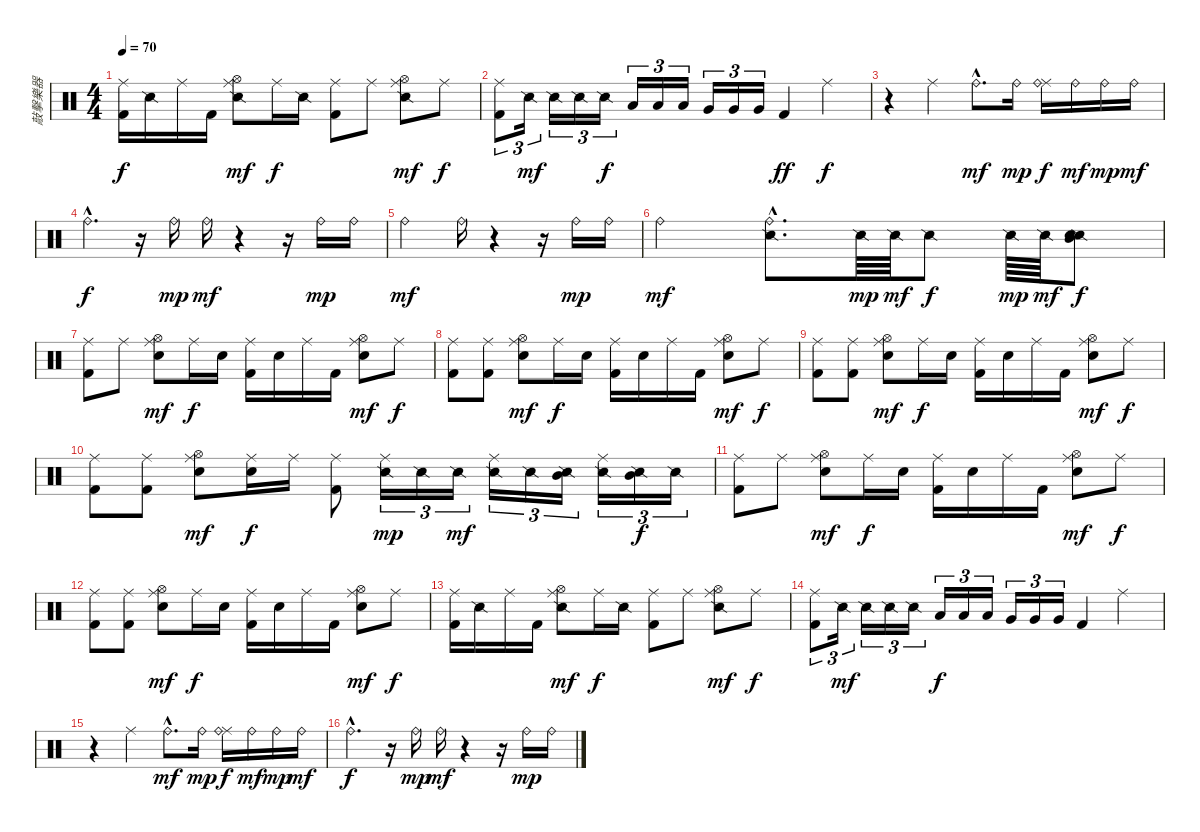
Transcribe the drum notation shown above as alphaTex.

\track ("敲擊樂器" "敲擊樂器") {instrument percussion}
\staff {score}
\articulation defaults
\ts (4 4)
\tempo 70
\clef neutral
\ks c
("Ride (middle)" "Kick (hit) 2").16{dy f} "Snare (side stick) 2".16 "Ride (middle)".16 "Kick (hit) 2".16 ("Ride (middle)" "Hi-Hat (open)" "Snare (side stick) 2").8{dy mf} "Ride (middle)".16{dy f} "Snare (side stick) 2".16 ("Ride (middle)" "Kick (hit) 2").8 "Ride (middle)".8 ("Ride (middle)" "Hi-Hat (open)" "Snare (side stick) 2").8{dy mf} "Ride (middle)".8{dy f} |
("Ride (middle)" "Kick (hit) 2").8{tu (3 2)} "Snare (side stick) 2".16{tu (3 2) dy mf} "Snare (side stick) 2".16{tu (3 2)} "Snare (side stick) 2".16{tu (3 2)} "Snare (side stick) 2".16{tu (3 2) dy f} "Low Tom (hit)".16{tu (3 2)} "Low Tom (hit)".16{tu (3 2)} "Low Tom (hit)".16{tu (3 2)} "Very Low Tom (hit)".16{tu (3 2)} "Very Low Tom (hit)".16{tu (3 2)} "Very Low Tom (hit)".16{tu (3 2)} "Kick (hit) 2".4{dy ff} "Ride (middle)".4{dy f} |
r.4 "Ride (middle)".4 "Ride (bell)"{hac}.8{d dy mf} "Ride (bell)".16{dy mp} ("Ride (middle)" "Ride (bell)").16{dy f} "Ride (bell)".16{dy mf} "Ride (bell)".16{dy mp} "Ride (bell)".16{dy mf} |
"Ride (bell)"{hac}.4{d dy f} r.16 "Ride (bell)".16{dy mp} "Ride (bell)".16{dy mf} r.4 r.16 "Ride (bell)".16{dy mp} "Ride (bell)".16 |
"Ride (bell)".2{dy mf} "Ride (bell)".16 r.4 r.16 "Ride (bell)".16{dy mp} "Ride (bell)".16 |
"Ride (bell)".2{dy mf} ("Ride (bell)"{hac} "Snare (side stick) 2"{hac}).8{d} "Snare (side stick) 2".64{dy mp} "Snare (side stick) 2".64{dy mf} "Snare (side stick) 2".8{dy f} "Snare (side stick) 2".64{dy mp} "Snare (side stick) 2".64{dy mf} ("Snare (side stick) 2" "Mid Tom (hit)" "Snare (hit) 2").8{dy f} |
("Ride (middle)" "Kick (hit) 2").8 "Ride (middle)".8 ("Ride (middle)" "Hi-Hat (open)" "Snare (hit) 2").8{dy mf} "Ride (middle)".16{dy f} "Snare (hit) 2".16 ("Ride (middle)" "Kick (hit) 2").16 "Snare (hit) 2".16 "Ride (middle)".16 "Kick (hit) 2".16 ("Ride (middle)" "Hi-Hat (open)" "Snare (hit) 2").8{dy mf} "Ride (middle)".8{dy f} |
("Ride (middle)" "Kick (hit) 2").8 ("Ride (middle)" "Kick (hit) 2").8 ("Ride (middle)" "Hi-Hat (open)" "Snare (hit) 2").8{dy mf} "Ride (middle)".16{dy f} "Snare (hit) 2".16 ("Ride (middle)" "Kick (hit) 2").16 "Snare (hit) 2".16 "Ride (middle)".16 "Kick (hit) 2".16 ("Ride (middle)" "Hi-Hat (open)" "Snare (hit) 2").8{dy mf} "Ride (middle)".8{dy f} |
("Ride (middle)" "Kick (hit) 2").8 ("Ride (middle)" "Kick (hit) 2").8 ("Ride (middle)" "Hi-Hat (open)" "Snare (hit) 2").8{dy mf} "Ride (middle)".16{dy f} "Snare (hit) 2".16 ("Ride (middle)" "Kick (hit) 2").16 "Snare (hit) 2".16 "Ride (middle)".16 "Kick (hit) 2".16 ("Ride (middle)" "Hi-Hat (open)" "Snare (hit) 2").8{dy mf} "Ride (middle)".8{dy f} |
("Ride (middle)" "Kick (hit) 2").8 ("Ride (middle)" "Kick (hit) 2").8 ("Ride (middle)" "Hi-Hat (open)" "Snare (hit) 2").8{dy mf} ("Ride (middle)" "Snare (hit) 2").16{dy f} "Ride (middle)".16 ("Ride (middle)" "Kick (hit) 2").8 ("Ride (middle)" "Snare (side stick) 2").16{tu (3 2) dy mp} "Snare (side stick) 2".16{tu (3 2)} "Snare (side stick) 2".16{tu (3 2) dy mf} ("Ride (middle)" "Snare (side stick) 2").16{tu (3 2)} "Snare (side stick) 2".16{tu (3 2)} ("Snare (side stick) 2" "Mid Tom (hit)").16{tu (3 2)} ("Ride (middle)" "Snare (side stick) 2").16{tu (3 2)} ("Snare (side stick) 2" "Mid Tom (hit)").16{tu (3 2) dy f} "Snare (side stick) 2".16{tu (3 2)} |
("Ride (middle)" "Kick (hit) 2").8 "Ride (middle)".8 ("Ride (middle)" "Hi-Hat (open)" "Snare (hit) 2").8{dy mf} "Ride (middle)".16{dy f} "Snare (hit) 2".16 ("Ride (middle)" "Kick (hit) 2").16 "Snare (hit) 2".16 "Ride (middle)".16 "Kick (hit) 2".16 ("Ride (middle)" "Hi-Hat (open)" "Snare (hit) 2").8{dy mf} "Ride (middle)".8{dy f} |
("Ride (middle)" "Kick (hit) 2").8 ("Ride (middle)" "Kick (hit) 2").8 ("Ride (middle)" "Hi-Hat (open)" "Snare (hit) 2").8{dy mf} "Ride (middle)".16{dy f} "Snare (hit) 2".16 ("Ride (middle)" "Kick (hit) 2").16 "Snare (hit) 2".16 "Ride (middle)".16 "Kick (hit) 2".16 ("Ride (middle)" "Hi-Hat (open)" "Snare (hit) 2").8{dy mf} "Ride (middle)".8{dy f} |
("Ride (middle)" "Kick (hit) 2").16 "Snare (side stick) 2".16 "Ride (middle)".16 "Kick (hit) 2".16 ("Ride (middle)" "Hi-Hat (open)" "Snare (side stick) 2").8{dy mf} "Ride (middle)".16{dy f} "Snare (side stick) 2".16 ("Ride (middle)" "Kick (hit) 2").8 "Ride (middle)".8 ("Ride (middle)" "Hi-Hat (open)" "Snare (side stick) 2").8{dy mf} "Ride (middle)".8{dy f} |
("Ride (middle)" "Kick (hit) 2").8{tu (3 2)} "Snare (side stick) 2".16{tu (3 2) dy mf} "Snare (side stick) 2".16{tu (3 2)} "Snare (side stick) 2".16{tu (3 2)} "Snare (side stick) 2".16{tu (3 2)} "Low Tom (hit)".16{tu (3 2) dy f} "Low Tom (hit)".16{tu (3 2)} "Low Tom (hit)".16{tu (3 2)} "Very Low Tom (hit)".16{tu (3 2)} "Very Low Tom (hit)".16{tu (3 2)} "Very Low Tom (hit)".16{tu (3 2)} "Kick (hit) 2".4 "Ride (middle)".4 |
r.4 "Ride (middle)".4 "Ride (bell)"{hac}.8{d dy mf} "Ride (bell)".16{dy mp} ("Ride (middle)" "Ride (bell)").16{dy f} "Ride (bell)".16{dy mf} "Ride (bell)".16{dy mp} "Ride (bell)".16{dy mf} |
"Ride (bell)"{hac}.4{d dy f} r.16 "Ride (bell)".16{dy mp} "Ride (bell)".16{dy mf} r.4 r.16 "Ride (bell)".16{dy mp} "Ride (bell)".16
